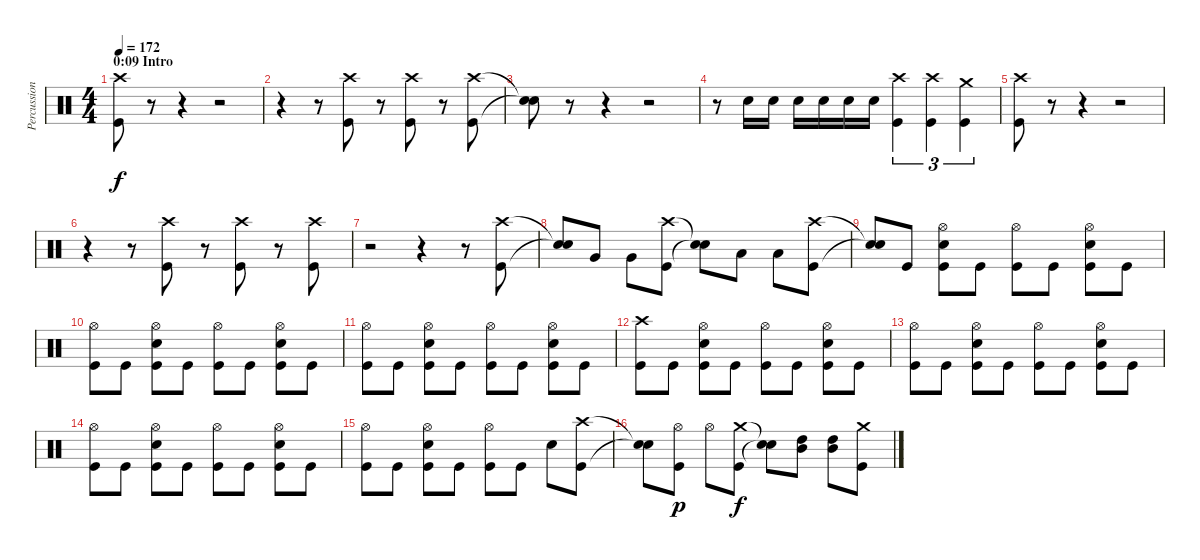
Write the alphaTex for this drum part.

\track ("Percussion" "Percussion") {instrument percussion}
\staff {score}
\articulation defaults
\ts (4 4)
\section ("" "0:09 Intro")
\tempo 172
\tempo 192
\tempo 172
\clef neutral
\ks c
("Crash high (hit)" "Kick (hit)").8{dy f} r.8 r.4 r.2 |
r.4 r.8 ("Crash high (hit)" "Kick (hit)").8 r.8 ("Crash high (hit)" "Kick (hit)").8 r.8 ("Crash high (hit)" "Kick (hit)").8 |
("Snare (hit)"{t} "Snare (hit)"{t}).8 r.8 r.4 r.2 |
r.8 "Snare (hit) 2".16 "Snare (hit) 2".16 "Snare (hit) 2".16 "Snare (hit) 2".16 "Snare (hit) 2".16 "Snare (hit) 2".16 ("Crash high (hit)" "Kick (hit)").4{tu (3 2)} ("Crash high (hit)" "Kick (hit)").4{tu (3 2)} ("Crash medium (hit)" "Kick (hit)").4{tu (3 2)} |
("Crash high (hit)" "Kick (hit)").8 r.8 r.4 r.2 |
r.4 r.8 ("Crash high (hit)" "Kick (hit)").8 r.8 ("Crash high (hit)" "Kick (hit)").8 r.8 ("Crash high (hit)" "Kick (hit)").8 |
r.2 r.4 r.8 ("Crash high (hit)" "Kick (hit)").8 |
("Snare (hit)"{t} "Snare (hit)"{t}).8 "Very Low Tom (hit)".8 "Very Low Tom (hit)".8 ("Crash high (hit)" "Kick (hit)").8 ("Snare (hit)"{t} "Snare (hit)"{t}).8 "Low Floor Tom (hit)".8 "Low Floor Tom (hit)".8 ("Crash high (hit)" "Kick (hit)").8 |
("Snare (hit)"{t} "Snare (hit)"{t}).8 "Kick (hit)".8 ("Hi-Hat (open)" "Snare (hit) 2" "Kick (hit)").8 "Kick (hit)".8 ("Hi-Hat (open)" "Kick (hit)").8 "Kick (hit)".8 ("Hi-Hat (open)" "Snare (hit) 2" "Kick (hit)").8 "Kick (hit)".8 |
("Hi-Hat (open)" "Kick (hit)").8 "Kick (hit)".8 ("Hi-Hat (open)" "Snare (hit) 2" "Kick (hit)").8 "Kick (hit)".8 ("Hi-Hat (open)" "Kick (hit)").8 "Kick (hit)".8 ("Hi-Hat (open)" "Snare (hit) 2" "Kick (hit)").8 "Kick (hit)".8 |
("Hi-Hat (open)" "Kick (hit)").8 "Kick (hit)".8 ("Hi-Hat (open)" "Snare (hit) 2" "Kick (hit)").8 "Kick (hit)".8 ("Hi-Hat (open)" "Kick (hit)").8 "Kick (hit)".8 ("Hi-Hat (open)" "Snare (hit) 2" "Kick (hit)").8 "Kick (hit)".8 |
("Crash high (hit)" "Kick (hit)").8 "Kick (hit)".8 ("Hi-Hat (open)" "Snare (hit) 2" "Kick (hit)").8 "Kick (hit)".8 ("Hi-Hat (open)" "Kick (hit)").8 "Kick (hit)".8 ("Hi-Hat (open)" "Snare (hit) 2" "Kick (hit)").8 "Kick (hit)".8 |
("Hi-Hat (open)" "Kick (hit)").8 "Kick (hit)".8 ("Hi-Hat (open)" "Snare (hit) 2" "Kick (hit)").8 "Kick (hit)".8 ("Hi-Hat (open)" "Kick (hit)").8 "Kick (hit)".8 ("Hi-Hat (open)" "Snare (hit) 2" "Kick (hit)").8 "Kick (hit)".8 |
("Hi-Hat (open)" "Kick (hit)").8 "Kick (hit)".8 ("Hi-Hat (open)" "Snare (hit) 2" "Kick (hit)").8 "Kick (hit)".8 ("Hi-Hat (open)" "Kick (hit)").8 "Kick (hit)".8 ("Hi-Hat (open)" "Snare (hit) 2" "Kick (hit)").8 "Kick (hit)".8 |
("Hi-Hat (open)" "Kick (hit)").8 "Kick (hit)".8 ("Hi-Hat (open)" "Snare (hit) 2" "Kick (hit)").8 "Kick (hit)".8 ("Hi-Hat (open)" "Kick (hit)").8 "Kick (hit)".8 "Snare (hit) 2".8 ("Crash high (hit)" "Kick (hit)").8 |
("Snare (hit)"{t} "Snare (hit)"{t}).8 ("Hi-Hat (open)" "Kick (hit)").8{dy p} "Hi-Hat (open)".8 ("Crash medium (hit)" "Kick (hit)").8{dy f} ("Snare (hit)"{t} "Snare (hit)"{t}).8 ("High Tom (hit)" "Mid Tom (hit)").8 ("High Tom (hit)" "Mid Tom (hit)").8 ("Crash medium (hit)" "Kick (hit)").8
